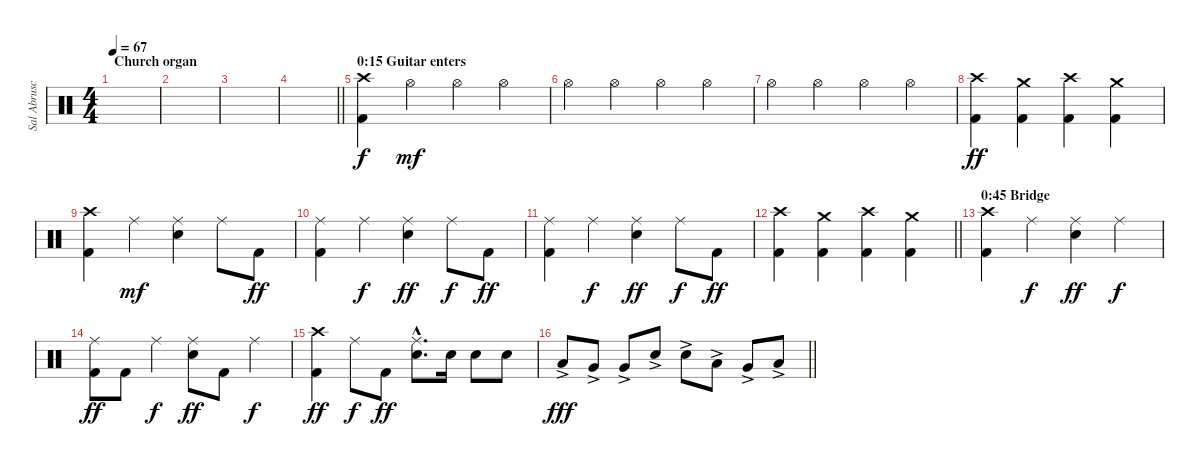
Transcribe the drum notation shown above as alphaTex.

\track ("Sal Abruscato (Drums)" "Sal Abrusc") {instrument percussion}
\staff {score}
\articulation defaults
\ts (4 4)
\section ("" "Church organ")
\tempo 67
\clef neutral
\ks c
|
|
|
\barLineRight lightlight
|
\section ("" "0:15 Guitar enters")
("Kick (hit) 2" "Crash high (hit)").4 "Hi-Hat (open)".4{dy mf} "Hi-Hat (open)".4 "Hi-Hat (open)".4 |
"Hi-Hat (open)".4 "Hi-Hat (open)".4 "Hi-Hat (open)".4 "Hi-Hat (open)".4 |
"Hi-Hat (open)".4 "Hi-Hat (open)".4 "Hi-Hat (open)".4 "Hi-Hat (open)".4 |
("Kick (hit) 2" "Crash high (hit)").4{dy ff} ("Kick (hit) 2" "Crash medium (hit)").4 ("Kick (hit) 2" "Crash high (hit)").4 ("Kick (hit) 2" "Crash medium (hit)").4 |
("Kick (hit) 2" "Crash high (hit)").4 "Ride (middle)".4{dy mf} ("Electric Snare (hit)" "Ride (middle)").4 "Ride (middle)".8 "Kick (hit) 2".8{dy ff} |
("Kick (hit) 2" "Ride (middle)").4 "Ride (middle)".4{dy f} ("Electric Snare (hit)" "Ride (middle)").4{dy ff} "Ride (middle)".8{dy f} "Kick (hit) 2".8{dy ff} |
("Kick (hit) 2" "Ride (middle)").4 "Ride (middle)".4{dy f} ("Electric Snare (hit)" "Ride (middle)").4{dy ff} "Ride (middle)".8{dy f} "Kick (hit) 2".8{dy ff} |
\barLineRight lightlight
("Kick (hit) 2" "Crash high (hit)").4 ("Kick (hit) 2" "Crash medium (hit)").4 ("Kick (hit) 2" "Crash high (hit)").4 ("Kick (hit) 2" "Crash medium (hit)").4 |
\section ("" "0:45 Bridge")
("Kick (hit) 2" "Crash high (hit)").4 "Ride (middle)".4{dy f} ("Electric Snare (hit)" "Ride (middle)").4{dy ff} "Ride (middle)".4{dy f} |
("Kick (hit) 2" "Ride (middle)").8{dy ff} "Kick (hit) 2".8 "Ride (middle)".4{dy f} ("Electric Snare (hit)" "Ride (middle)").8{dy ff} "Kick (hit) 2".8 "Ride (middle)".4{dy f} |
("Kick (hit) 2" "Crash high (hit)").4{dy ff} "Ride (middle)".8{dy f} "Kick (hit) 2".8{dy ff} ("Electric Snare (hit)"{hac} "Ride (middle)"{hac}).8{d} "Electric Snare (hit)".16 "Electric Snare (hit)".8 "Electric Snare (hit)".8 |
\barLineRight lightlight "Low Tom (hit)"{ac}.8{dy fff} "Very Low Tom (hit)"{ac}.8 "Very Low Tom (hit)"{ac}.8 "Electric Snare (hit)"{ac}.8 "Electric Snare (hit)"{ac}.8 "Low Tom (hit)"{ac}.8 "Very Low Tom (hit)"{ac}.8 "Low Floor Tom (hit)"{ac}.8
